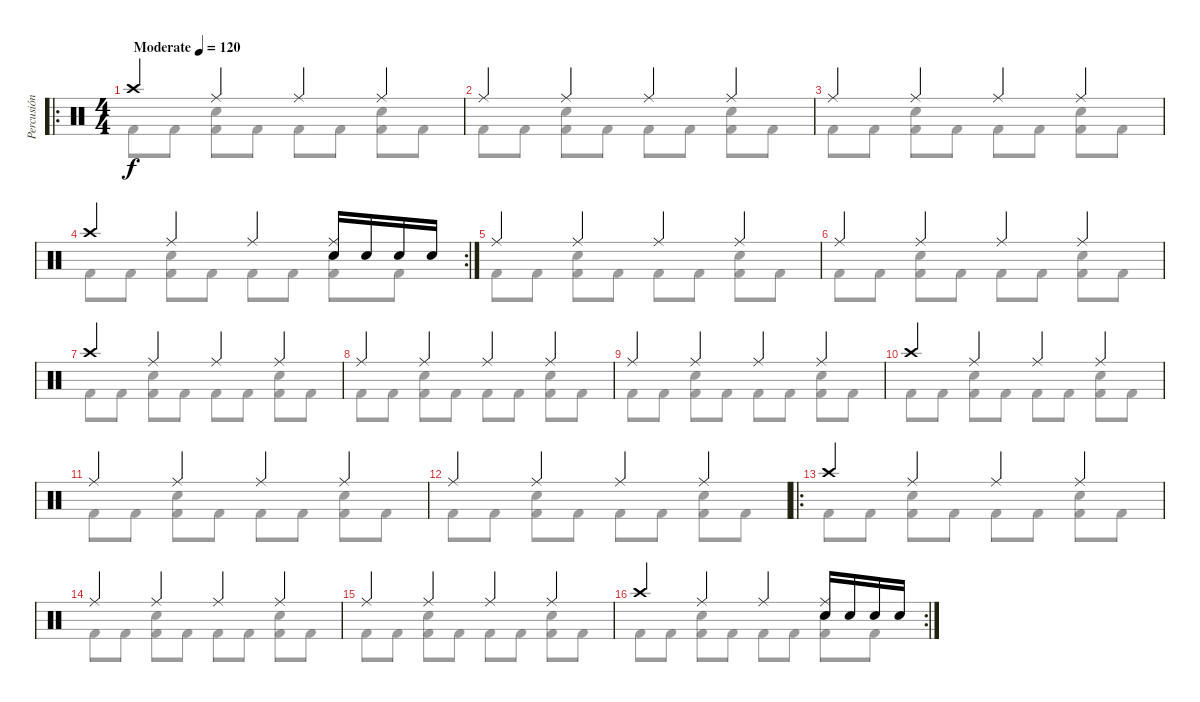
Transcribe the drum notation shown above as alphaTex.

\track ("Percusión" "Percusión") {instrument percussion}
\staff {score}
\articulation defaults
\voice
\ro
\ts (4 4)
\tempo (120 "Moderate")
\clef neutral
\ks c "Crash high (hit)".4{dy f} "Ride (middle)".4 "Ride (middle)".4 "Ride (middle)".4
|
"Ride (middle)".4 "Ride (middle)".4 "Ride (middle)".4 "Ride (middle)".4 |
"Ride (middle)".4 "Ride (middle)".4 "Ride (middle)".4 "Ride (middle)".4 |
\rc 2 "Crash high (hit)".4 "Ride (middle)".4 "Ride (middle)".4
("Ride (middle)" "Snare (hit) 2").16 "Snare (hit) 2".16 "Snare (hit) 2".16 "Snare (hit) 2".16 |
"Ride (middle)".4 "Ride (middle)".4 "Ride (middle)".4 "Ride (middle)".4 |
"Ride (middle)".4 "Ride (middle)".4 "Ride (middle)".4 "Ride (middle)".4 |
"Crash high (hit)".4 "Ride (middle)".4 "Ride (middle)".4 "Ride (middle)".4 |
"Ride (middle)".4 "Ride (middle)".4 "Ride (middle)".4 "Ride (middle)".4 |
"Ride (middle)".4 "Ride (middle)".4 "Ride (middle)".4 "Ride (middle)".4 |
"Crash high (hit)".4 "Ride (middle)".4 "Ride (middle)".4 "Ride (middle)".4 |
"Ride (middle)".4 "Ride (middle)".4 "Ride (middle)".4 "Ride (middle)".4 |
"Ride (middle)".4 "Ride (middle)".4 "Ride (middle)".4 "Ride (middle)".4 |
\ro "Crash high (hit)".4 "Ride (middle)".4 "Ride (middle)".4 "Ride (middle)".4
|
"Ride (middle)".4 "Ride (middle)".4 "Ride (middle)".4 "Ride (middle)".4 |
"Ride (middle)".4 "Ride (middle)".4 "Ride (middle)".4 "Ride (middle)".4 |
\rc 2 "Crash high (hit)".4 "Ride (middle)".4 "Ride (middle)".4
("Ride (middle)" "Snare (hit) 2").16 "Snare (hit) 2".16 "Snare (hit) 2".16 "Snare (hit) 2".16
\voice
\clef neutral
\ottava regular
\simile none
\ks c "Kick (hit) 2".8{dy f} "Kick (hit) 2".8
("Electric Snare (hit)" "Kick (hit) 2").8 "Kick (hit) 2".8 "Kick (hit) 2".8 "Kick (hit) 2".8 ("Electric Snare (hit)" "Kick (hit) 2").8 "Kick (hit) 2".8 |
"Kick (hit) 2".8 "Kick (hit) 2".8 ("Electric Snare (hit)" "Kick (hit) 2").8 "Kick (hit) 2".8 "Kick (hit) 2".8 "Kick (hit) 2".8 ("Electric Snare (hit)" "Kick (hit) 2").8 "Kick (hit) 2".8 |
"Kick (hit) 2".8 "Kick (hit) 2".8 ("Electric Snare (hit)" "Kick (hit) 2").8 "Kick (hit) 2".8 "Kick (hit) 2".8 "Kick (hit) 2".8 ("Electric Snare (hit)" "Kick (hit) 2").8 "Kick (hit) 2".8 |
"Kick (hit) 2".8 "Kick (hit) 2".8 ("Electric Snare (hit)" "Kick (hit) 2").8 "Kick (hit) 2".8 "Kick (hit) 2".8 "Kick (hit) 2".8 ("Electric Snare (hit)" "Kick (hit) 2").8 "Kick (hit) 2".8 |
"Kick (hit) 2".8 "Kick (hit) 2".8 ("Electric Snare (hit)" "Kick (hit) 2").8 "Kick (hit) 2".8 "Kick (hit) 2".8 "Kick (hit) 2".8 ("Electric Snare (hit)" "Kick (hit) 2").8 "Kick (hit) 2".8 |
"Kick (hit) 2".8 "Kick (hit) 2".8 ("Electric Snare (hit)" "Kick (hit) 2").8 "Kick (hit) 2".8 "Kick (hit) 2".8 "Kick (hit) 2".8 ("Electric Snare (hit)" "Kick (hit) 2").8 "Kick (hit) 2".8 |
"Kick (hit) 2".8 "Kick (hit) 2".8 ("Electric Snare (hit)" "Kick (hit) 2").8 "Kick (hit) 2".8 "Kick (hit) 2".8 "Kick (hit) 2".8 ("Electric Snare (hit)" "Kick (hit) 2").8 "Kick (hit) 2".8 |
"Kick (hit) 2".8 "Kick (hit) 2".8 ("Electric Snare (hit)" "Kick (hit) 2").8 "Kick (hit) 2".8 "Kick (hit) 2".8 "Kick (hit) 2".8 ("Electric Snare (hit)" "Kick (hit) 2").8 "Kick (hit) 2".8 |
"Kick (hit) 2".8 "Kick (hit) 2".8 ("Electric Snare (hit)" "Kick (hit) 2").8 "Kick (hit) 2".8 "Kick (hit) 2".8 "Kick (hit) 2".8 ("Electric Snare (hit)" "Kick (hit) 2").8 "Kick (hit) 2".8 |
"Kick (hit) 2".8 "Kick (hit) 2".8 ("Electric Snare (hit)" "Kick (hit) 2").8 "Kick (hit) 2".8 "Kick (hit) 2".8 "Kick (hit) 2".8 ("Electric Snare (hit)" "Kick (hit) 2").8 "Kick (hit) 2".8 |
"Kick (hit) 2".8 "Kick (hit) 2".8 ("Electric Snare (hit)" "Kick (hit) 2").8 "Kick (hit) 2".8 "Kick (hit) 2".8 "Kick (hit) 2".8 ("Electric Snare (hit)" "Kick (hit) 2").8 "Kick (hit) 2".8 |
"Kick (hit) 2".8 "Kick (hit) 2".8 ("Electric Snare (hit)" "Kick (hit) 2").8 "Kick (hit) 2".8 "Kick (hit) 2".8 "Kick (hit) 2".8 ("Electric Snare (hit)" "Kick (hit) 2").8 "Kick (hit) 2".8 |
"Kick (hit) 2".8 "Kick (hit) 2".8 ("Electric Snare (hit)" "Kick (hit) 2").8 "Kick (hit) 2".8 "Kick (hit) 2".8 "Kick (hit) 2".8 ("Electric Snare (hit)" "Kick (hit) 2").8 "Kick (hit) 2".8 |
"Kick (hit) 2".8 "Kick (hit) 2".8 ("Electric Snare (hit)" "Kick (hit) 2").8 "Kick (hit) 2".8 "Kick (hit) 2".8 "Kick (hit) 2".8 ("Electric Snare (hit)" "Kick (hit) 2").8 "Kick (hit) 2".8 |
"Kick (hit) 2".8 "Kick (hit) 2".8 ("Electric Snare (hit)" "Kick (hit) 2").8 "Kick (hit) 2".8 "Kick (hit) 2".8 "Kick (hit) 2".8 ("Electric Snare (hit)" "Kick (hit) 2").8 "Kick (hit) 2".8 |
"Kick (hit) 2".8 "Kick (hit) 2".8 ("Electric Snare (hit)" "Kick (hit) 2").8 "Kick (hit) 2".8 "Kick (hit) 2".8 "Kick (hit) 2".8 ("Electric Snare (hit)" "Kick (hit) 2").8 "Kick (hit) 2".8
